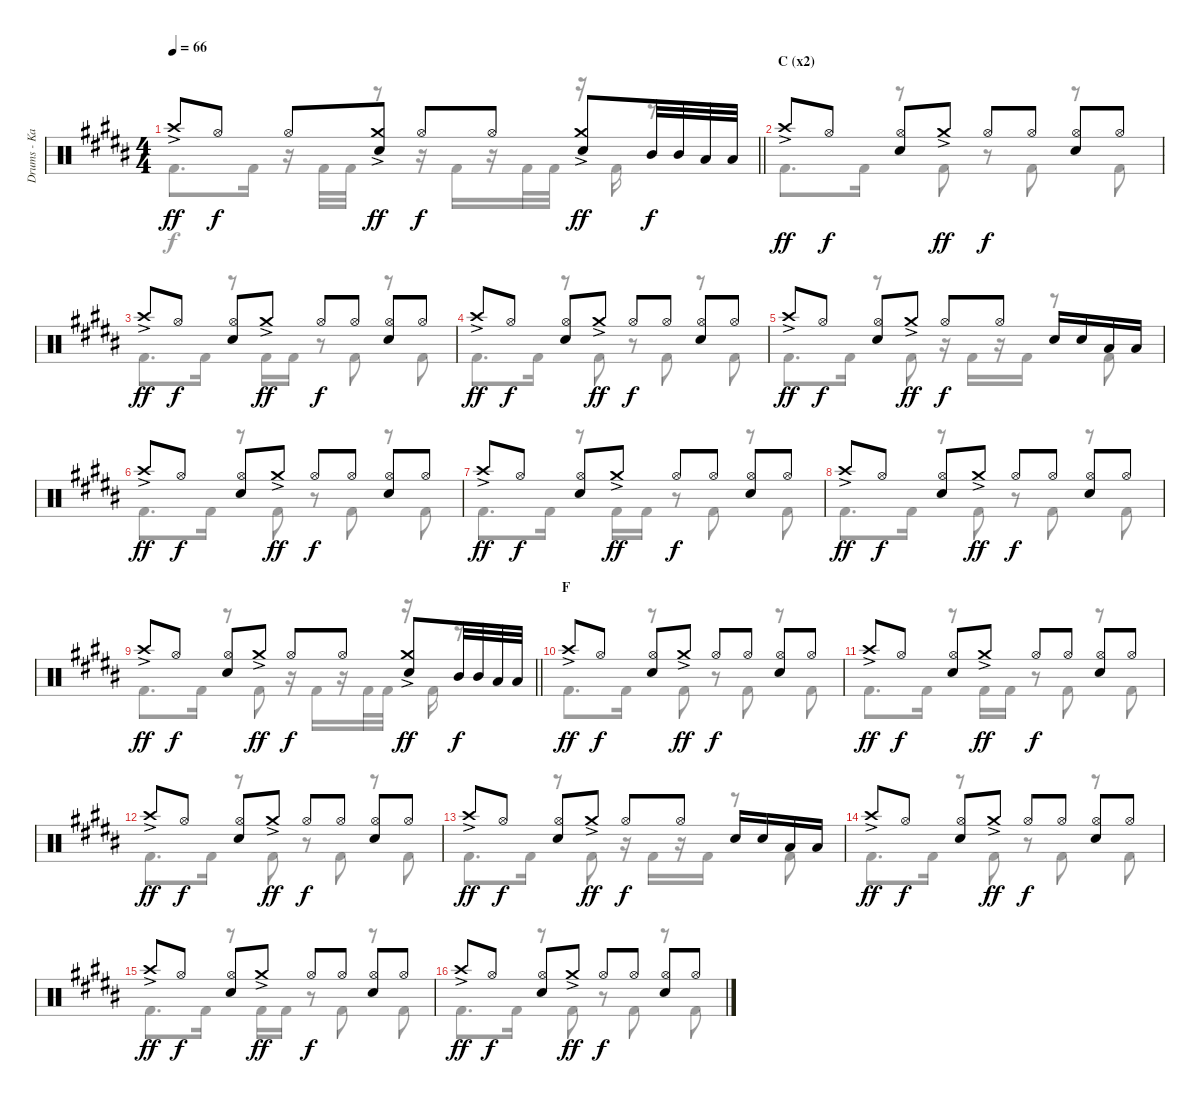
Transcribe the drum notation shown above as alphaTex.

\track ("Drums - Kai" "Drums - Ka") {instrument percussion}
\staff {score}
\articulation defaults
\voice
\ts (4 4)
\tempo 66
\clef neutral
\barLineRight lightlight
\ks b "Crash high (hit)"{ac}.8{dy ff} "Hi-Hat (open)".8{dy f} "Hi-Hat (open)".8
("Crash medium (hit)"{ac} "Electric Snare (hit)").8{dy ff} "Hi-Hat (open)".8{dy f} "Hi-Hat (open)".8 ("Crash medium (hit)"{ac} "Electric Snare (hit)").8{dy ff} "Mid Tom (hit)".32{dy f} "Mid Tom (hit)".32 "Low Tom (hit)".32 "Low Tom (hit)".32 |
\section ("" "C (x2)")
"Crash high (hit)"{ac}.8{dy ff} "Hi-Hat (open)".8{dy f} ("Hi-Hat (open)" "Electric Snare (hit)").8 "Crash medium (hit)"{ac}.8{dy ff} "Hi-Hat (open)".8{dy f} "Hi-Hat (open)".8 ("Hi-Hat (open)" "Electric Snare (hit)").8 "Hi-Hat (open)".8 |
"Crash high (hit)"{ac}.8{dy ff} "Hi-Hat (open)".8{dy f} ("Hi-Hat (open)" "Electric Snare (hit)").8 "Crash medium (hit)"{ac}.8{dy ff} "Hi-Hat (open)".8{dy f} "Hi-Hat (open)".8 ("Hi-Hat (open)" "Electric Snare (hit)").8 "Hi-Hat (open)".8 |
"Crash high (hit)"{ac}.8{dy ff} "Hi-Hat (open)".8{dy f} ("Hi-Hat (open)" "Electric Snare (hit)").8 "Crash medium (hit)"{ac}.8{dy ff} "Hi-Hat (open)".8{dy f} "Hi-Hat (open)".8 ("Hi-Hat (open)" "Electric Snare (hit)").8 "Hi-Hat (open)".8 |
"Crash high (hit)"{ac}.8{dy ff} "Hi-Hat (open)".8{dy f} ("Hi-Hat (open)" "Electric Snare (hit)").8 "Crash medium (hit)"{ac}.8{dy ff} "Hi-Hat (open)".8{dy f} "Hi-Hat (open)".8 "Electric Snare (hit)".16 "Electric Snare (hit)".16 "Low Tom (hit)".16 "Low Tom (hit)".16 |
"Crash high (hit)"{ac}.8{dy ff} "Hi-Hat (open)".8{dy f} ("Hi-Hat (open)" "Electric Snare (hit)").8 "Crash medium (hit)"{ac}.8{dy ff} "Hi-Hat (open)".8{dy f} "Hi-Hat (open)".8 ("Hi-Hat (open)" "Electric Snare (hit)").8 "Hi-Hat (open)".8 |
"Crash high (hit)"{ac}.8{dy ff} "Hi-Hat (open)".8{dy f} ("Hi-Hat (open)" "Electric Snare (hit)").8 "Crash medium (hit)"{ac}.8{dy ff} "Hi-Hat (open)".8{dy f} "Hi-Hat (open)".8 ("Hi-Hat (open)" "Electric Snare (hit)").8 "Hi-Hat (open)".8 |
"Crash high (hit)"{ac}.8{dy ff} "Hi-Hat (open)".8{dy f} ("Hi-Hat (open)" "Electric Snare (hit)").8 "Crash medium (hit)"{ac}.8{dy ff} "Hi-Hat (open)".8{dy f} "Hi-Hat (open)".8 ("Hi-Hat (open)" "Electric Snare (hit)").8 "Hi-Hat (open)".8 |
\barLineRight lightlight "Crash high (hit)"{ac}.8{dy ff} "Hi-Hat (open)".8{dy f}
("Hi-Hat (open)" "Electric Snare (hit)").8 "Crash medium (hit)"{ac}.8{dy ff} "Hi-Hat (open)".8{dy f} "Hi-Hat (open)".8 ("Crash medium (hit)"{ac} "Electric Snare (hit)").8{dy ff} "Mid Tom (hit)".32{dy f} "Mid Tom (hit)".32 "Low Tom (hit)".32 "Low Tom (hit)".32 |
\section ("" "F")
"Crash high (hit)"{ac}.8{dy ff} "Hi-Hat (open)".8{dy f} ("Hi-Hat (open)" "Electric Snare (hit)").8 "Crash medium (hit)"{ac}.8{dy ff} "Hi-Hat (open)".8{dy f} "Hi-Hat (open)".8 ("Hi-Hat (open)" "Electric Snare (hit)").8 "Hi-Hat (open)".8 |
"Crash high (hit)"{ac}.8{dy ff} "Hi-Hat (open)".8{dy f} ("Hi-Hat (open)" "Electric Snare (hit)").8 "Crash medium (hit)"{ac}.8{dy ff} "Hi-Hat (open)".8{dy f} "Hi-Hat (open)".8 ("Hi-Hat (open)" "Electric Snare (hit)").8 "Hi-Hat (open)".8 |
"Crash high (hit)"{ac}.8{dy ff} "Hi-Hat (open)".8{dy f} ("Hi-Hat (open)" "Electric Snare (hit)").8 "Crash medium (hit)"{ac}.8{dy ff} "Hi-Hat (open)".8{dy f} "Hi-Hat (open)".8 ("Hi-Hat (open)" "Electric Snare (hit)").8 "Hi-Hat (open)".8 |
"Crash high (hit)"{ac}.8{dy ff} "Hi-Hat (open)".8{dy f} ("Hi-Hat (open)" "Electric Snare (hit)").8 "Crash medium (hit)"{ac}.8{dy ff} "Hi-Hat (open)".8{dy f} "Hi-Hat (open)".8 "Electric Snare (hit)".16 "Electric Snare (hit)".16 "Low Tom (hit)".16 "Low Tom (hit)".16 |
"Crash high (hit)"{ac}.8{dy ff} "Hi-Hat (open)".8{dy f} ("Hi-Hat (open)" "Electric Snare (hit)").8 "Crash medium (hit)"{ac}.8{dy ff} "Hi-Hat (open)".8{dy f} "Hi-Hat (open)".8 ("Hi-Hat (open)" "Electric Snare (hit)").8 "Hi-Hat (open)".8 |
"Crash high (hit)"{ac}.8{dy ff} "Hi-Hat (open)".8{dy f} ("Hi-Hat (open)" "Electric Snare (hit)").8 "Crash medium (hit)"{ac}.8{dy ff} "Hi-Hat (open)".8{dy f} "Hi-Hat (open)".8 ("Hi-Hat (open)" "Electric Snare (hit)").8 "Hi-Hat (open)".8 |
"Crash high (hit)"{ac}.8{dy ff} "Hi-Hat (open)".8{dy f} ("Hi-Hat (open)" "Electric Snare (hit)").8 "Crash medium (hit)"{ac}.8{dy ff} "Hi-Hat (open)".8{dy f} "Hi-Hat (open)".8 ("Hi-Hat (open)" "Electric Snare (hit)").8 "Hi-Hat (open)".8
\voice
\clef neutral
\ottava regular
\simile none
\barLineRight lightlight
\ks b "Kick (hit) 2".8{d dy f} "Kick (hit) 2".16
r.16 "Kick (hit) 2".32 "Kick (hit) 2".32 r.8 r.16 "Kick (hit) 2".16 r.16 "Kick (hit) 2".32 "Kick (hit) 2".32 r.16 "Kick (hit) 2".16 r.8 |
"Kick (hit) 2".8{d} "Kick (hit) 2".16 r.8 "Kick (hit) 2".8 r.8 "Kick (hit) 2".8 r.8 "Kick (hit) 2".8 |
"Kick (hit) 2".8{d} "Kick (hit) 2".16 r.8 "Kick (hit) 2".16 "Kick (hit) 2".16 r.8 "Kick (hit) 2".8 r.8 "Kick (hit) 2".8 |
"Kick (hit) 2".8{d} "Kick (hit) 2".16 r.8 "Kick (hit) 2".8 r.8 "Kick (hit) 2".8 r.8 "Kick (hit) 2".8 |
"Kick (hit) 2".8{d} "Kick (hit) 2".16 r.8 "Kick (hit) 2".8 r.16 "Kick (hit) 2".16 r.16 "Kick (hit) 2".16 r.8 "Kick (hit) 2".8 |
"Kick (hit) 2".8{d} "Kick (hit) 2".16 r.8 "Kick (hit) 2".8 r.8 "Kick (hit) 2".8 r.8 "Kick (hit) 2".8 |
"Kick (hit) 2".8{d} "Kick (hit) 2".16 r.8 "Kick (hit) 2".16 "Kick (hit) 2".16 r.8 "Kick (hit) 2".8 r.8 "Kick (hit) 2".8 |
"Kick (hit) 2".8{d} "Kick (hit) 2".16 r.8 "Kick (hit) 2".8 r.8 "Kick (hit) 2".8 r.8 "Kick (hit) 2".8 |
\barLineRight lightlight "Kick (hit) 2".8{d} "Kick (hit) 2".16
r.8 "Kick (hit) 2".8 r.16 "Kick (hit) 2".16 r.16 "Kick (hit) 2".32 "Kick (hit) 2".32 r.16 "Kick (hit) 2".16 r.8 |
"Kick (hit) 2".8{d} "Kick (hit) 2".16 r.8 "Kick (hit) 2".8 r.8 "Kick (hit) 2".8 r.8 "Kick (hit) 2".8 |
"Kick (hit) 2".8{d} "Kick (hit) 2".16 r.8 "Kick (hit) 2".16 "Kick (hit) 2".16 r.8 "Kick (hit) 2".8 r.8 "Kick (hit) 2".8 |
"Kick (hit) 2".8{d} "Kick (hit) 2".16 r.8 "Kick (hit) 2".8 r.8 "Kick (hit) 2".8 r.8 "Kick (hit) 2".8 |
"Kick (hit) 2".8{d} "Kick (hit) 2".16 r.8 "Kick (hit) 2".8 r.16 "Kick (hit) 2".16 r.16 "Kick (hit) 2".16 r.8 "Kick (hit) 2".8 |
"Kick (hit) 2".8{d} "Kick (hit) 2".16 r.8 "Kick (hit) 2".8 r.8 "Kick (hit) 2".8 r.8 "Kick (hit) 2".8 |
"Kick (hit) 2".8{d} "Kick (hit) 2".16 r.8 "Kick (hit) 2".16 "Kick (hit) 2".16 r.8 "Kick (hit) 2".8 r.8 "Kick (hit) 2".8 |
"Kick (hit) 2".8{d} "Kick (hit) 2".16 r.8 "Kick (hit) 2".8 r.8 "Kick (hit) 2".8 r.8 "Kick (hit) 2".8
